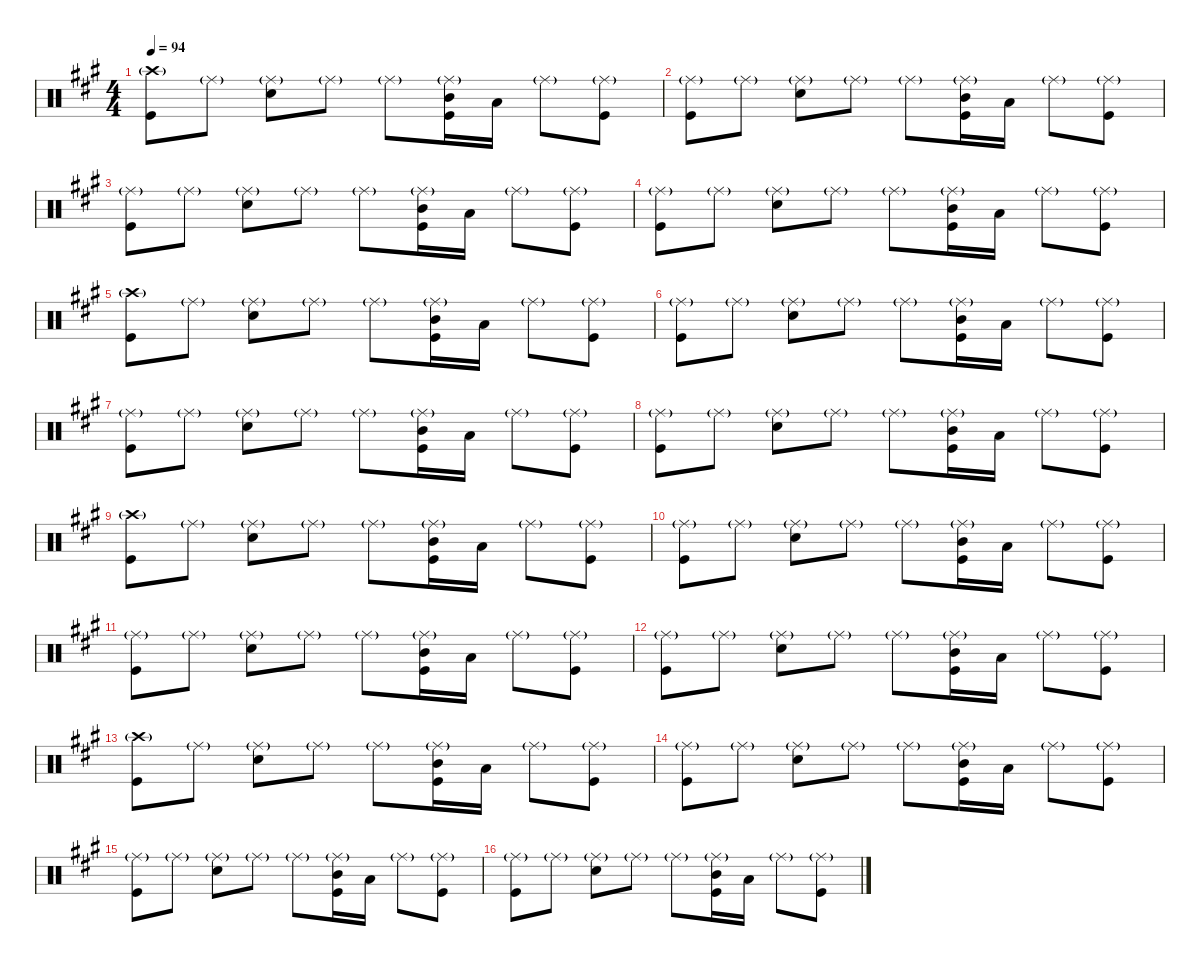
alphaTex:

\defaultSystemsLayout 4
\hideDynamics
\bracketExtendMode nobrackets
\singleTrackTrackNamePolicy hidden
\multiTrackTrackNamePolicy hidden
\firstSystemTrackNameMode fullname
\firstSystemTrackNameOrientation horizontal
\otherSystemsTrackNameOrientation horizontal
\track ("Percussion" "drm.") {defaultSystemsLayout 4 instrument percussion}
\staff {score}
\articulation defaults
\ts (4 4)
\tempo 94
\clef neutral
\ks a
("Crash high (hit)"{g acc forcenatural} "Kick (hit)"{acc forcenatural}).8{dy f beam Down} "Ride (middle)"{g acc forcenatural}.8{dy mf beam Down} ("Ride (middle)"{g acc forcenatural} "Snare (hit) 2"{acc forcenatural}).8{dy f beam Down} "Ride (middle)"{g acc forcenatural}.8{dy mf beam Down} "Ride (middle)"{g acc forcenatural}.8{beam Down} ("Ride (middle)"{g acc forcenatural} "Mid Tom (hit)"{acc forcenatural} "Kick (hit)"{acc forcenatural}).16{dy mp beam Down} "Low Tom (hit)"{acc forcenatural}.16{beam Down} "Ride (middle)"{g acc forcenatural}.8{dy mf beam Down} ("Ride (middle)"{g acc forcenatural} "Kick (hit)"{acc forcenatural}).8{dy f beam Down} |
("Ride (middle)"{g acc forcenatural} "Kick (hit)"{acc forcenatural}).8{beam Down} "Ride (middle)"{g acc forcenatural}.8{dy mf beam Down} ("Ride (middle)"{g acc forcenatural} "Snare (hit) 2"{acc forcenatural}).8{dy f beam Down} "Ride (middle)"{g acc forcenatural}.8{dy mf beam Down} "Ride (middle)"{g acc forcenatural}.8{beam Down} ("Ride (middle)"{g acc forcenatural} "Mid Tom (hit)"{acc forcenatural} "Kick (hit)"{acc forcenatural}).16{dy mp beam Down} "Low Tom (hit)"{acc forcenatural}.16{beam Down} "Ride (middle)"{g acc forcenatural}.8{dy mf beam Down} ("Ride (middle)"{g acc forcenatural} "Kick (hit)"{acc forcenatural}).8{dy f beam Down} |
("Ride (middle)"{g acc forcenatural} "Kick (hit)"{acc forcenatural}).8{beam Down} "Ride (middle)"{g acc forcenatural}.8{dy mf beam Down} ("Ride (middle)"{g acc forcenatural} "Snare (hit) 2"{acc forcenatural}).8{dy f beam Down} "Ride (middle)"{g acc forcenatural}.8{dy mf beam Down} "Ride (middle)"{g acc forcenatural}.8{beam Down} ("Ride (middle)"{g acc forcenatural} "Mid Tom (hit)"{acc forcenatural} "Kick (hit)"{acc forcenatural}).16{dy mp beam Down} "Low Tom (hit)"{acc forcenatural}.16{beam Down} "Ride (middle)"{g acc forcenatural}.8{dy mf beam Down} ("Ride (middle)"{g acc forcenatural} "Kick (hit)"{acc forcenatural}).8{dy f beam Down} |
("Ride (middle)"{g acc forcenatural} "Kick (hit)"{acc forcenatural}).8{beam Down} "Ride (middle)"{g acc forcenatural}.8{dy mf beam Down} ("Ride (middle)"{g acc forcenatural} "Snare (hit) 2"{acc forcenatural}).8{dy f beam Down} "Ride (middle)"{g acc forcenatural}.8{dy mf beam Down} "Ride (middle)"{g acc forcenatural}.8{beam Down} ("Ride (middle)"{g acc forcenatural} "Mid Tom (hit)"{acc forcenatural} "Kick (hit)"{acc forcenatural}).16{dy mp beam Down} "Low Tom (hit)"{acc forcenatural}.16{beam Down} "Ride (middle)"{g acc forcenatural}.8{dy mf beam Down} ("Ride (middle)"{g acc forcenatural} "Kick (hit)"{acc forcenatural}).8{dy f beam Down} |
("Crash high (hit)"{g acc forcenatural} "Kick (hit)"{acc forcenatural}).8{beam Down} "Ride (middle)"{g acc forcenatural}.8{dy mf beam Down} ("Ride (middle)"{g acc forcenatural} "Snare (hit) 2"{acc forcenatural}).8{dy f beam Down} "Ride (middle)"{g acc forcenatural}.8{dy mf beam Down} "Ride (middle)"{g acc forcenatural}.8{beam Down} ("Ride (middle)"{g acc forcenatural} "Mid Tom (hit)"{acc forcenatural} "Kick (hit)"{acc forcenatural}).16{dy mp beam Down} "Low Tom (hit)"{acc forcenatural}.16{beam Down} "Ride (middle)"{g acc forcenatural}.8{dy mf beam Down} ("Ride (middle)"{g acc forcenatural} "Kick (hit)"{acc forcenatural}).8{dy f beam Down} |
("Ride (middle)"{g acc forcenatural} "Kick (hit)"{acc forcenatural}).8{beam Down} "Ride (middle)"{g acc forcenatural}.8{dy mf beam Down} ("Ride (middle)"{g acc forcenatural} "Snare (hit) 2"{acc forcenatural}).8{dy f beam Down} "Ride (middle)"{g acc forcenatural}.8{dy mf beam Down} "Ride (middle)"{g acc forcenatural}.8{beam Down} ("Ride (middle)"{g acc forcenatural} "Mid Tom (hit)"{acc forcenatural} "Kick (hit)"{acc forcenatural}).16{dy mp beam Down} "Low Tom (hit)"{acc forcenatural}.16{beam Down} "Ride (middle)"{g acc forcenatural}.8{dy mf beam Down} ("Ride (middle)"{g acc forcenatural} "Kick (hit)"{acc forcenatural}).8{dy f beam Down} |
("Ride (middle)"{g acc forcenatural} "Kick (hit)"{acc forcenatural}).8{beam Down} "Ride (middle)"{g acc forcenatural}.8{dy mf beam Down} ("Ride (middle)"{g acc forcenatural} "Snare (hit) 2"{acc forcenatural}).8{dy f beam Down} "Ride (middle)"{g acc forcenatural}.8{dy mf beam Down} "Ride (middle)"{g acc forcenatural}.8{beam Down} ("Ride (middle)"{g acc forcenatural} "Mid Tom (hit)"{acc forcenatural} "Kick (hit)"{acc forcenatural}).16{dy mp beam Down} "Low Tom (hit)"{acc forcenatural}.16{beam Down} "Ride (middle)"{g acc forcenatural}.8{dy mf beam Down} ("Ride (middle)"{g acc forcenatural} "Kick (hit)"{acc forcenatural}).8{dy f beam Down} |
("Ride (middle)"{g acc forcenatural} "Kick (hit)"{acc forcenatural}).8{beam Down} "Ride (middle)"{g acc forcenatural}.8{dy mf beam Down} ("Ride (middle)"{g acc forcenatural} "Snare (hit) 2"{acc forcenatural}).8{dy f beam Down} "Ride (middle)"{g acc forcenatural}.8{dy mf beam Down} "Ride (middle)"{g acc forcenatural}.8{beam Down} ("Ride (middle)"{g acc forcenatural} "Mid Tom (hit)"{acc forcenatural} "Kick (hit)"{acc forcenatural}).16{dy mp beam Down} "Low Tom (hit)"{acc forcenatural}.16{beam Down} "Ride (middle)"{g acc forcenatural}.8{dy mf beam Down} ("Ride (middle)"{g acc forcenatural} "Kick (hit)"{acc forcenatural}).8{dy f beam Down} |
("Crash high (hit)"{g acc forcenatural} "Kick (hit)"{acc forcenatural}).8{beam Down} "Ride (middle)"{g acc forcenatural}.8{dy mf beam Down} ("Ride (middle)"{g acc forcenatural} "Snare (hit) 2"{acc forcenatural}).8{dy f beam Down} "Ride (middle)"{g acc forcenatural}.8{dy mf beam Down} "Ride (middle)"{g acc forcenatural}.8{beam Down} ("Ride (middle)"{g acc forcenatural} "Mid Tom (hit)"{acc forcenatural} "Kick (hit)"{acc forcenatural}).16{dy mp beam Down} "Low Tom (hit)"{acc forcenatural}.16{beam Down} "Ride (middle)"{g acc forcenatural}.8{dy mf beam Down} ("Ride (middle)"{g acc forcenatural} "Kick (hit)"{acc forcenatural}).8{dy f beam Down} |
("Ride (middle)"{g acc forcenatural} "Kick (hit)"{acc forcenatural}).8{beam Down} "Ride (middle)"{g acc forcenatural}.8{dy mf beam Down} ("Ride (middle)"{g acc forcenatural} "Snare (hit) 2"{acc forcenatural}).8{dy f beam Down} "Ride (middle)"{g acc forcenatural}.8{dy mf beam Down} "Ride (middle)"{g acc forcenatural}.8{beam Down} ("Ride (middle)"{g acc forcenatural} "Mid Tom (hit)"{acc forcenatural} "Kick (hit)"{acc forcenatural}).16{dy mp beam Down} "Low Tom (hit)"{acc forcenatural}.16{beam Down} "Ride (middle)"{g acc forcenatural}.8{dy mf beam Down} ("Ride (middle)"{g acc forcenatural} "Kick (hit)"{acc forcenatural}).8{dy f beam Down} |
("Ride (middle)"{g acc forcenatural} "Kick (hit)"{acc forcenatural}).8{beam Down} "Ride (middle)"{g acc forcenatural}.8{dy mf beam Down} ("Ride (middle)"{g acc forcenatural} "Snare (hit) 2"{acc forcenatural}).8{dy f beam Down} "Ride (middle)"{g acc forcenatural}.8{dy mf beam Down} "Ride (middle)"{g acc forcenatural}.8{beam Down} ("Ride (middle)"{g acc forcenatural} "Mid Tom (hit)"{acc forcenatural} "Kick (hit)"{acc forcenatural}).16{dy mp beam Down} "Low Tom (hit)"{acc forcenatural}.16{beam Down} "Ride (middle)"{g acc forcenatural}.8{dy mf beam Down} ("Ride (middle)"{g acc forcenatural} "Kick (hit)"{acc forcenatural}).8{dy f beam Down} |
("Ride (middle)"{g acc forcenatural} "Kick (hit)"{acc forcenatural}).8{beam Down} "Ride (middle)"{g acc forcenatural}.8{dy mf beam Down} ("Ride (middle)"{g acc forcenatural} "Snare (hit) 2"{acc forcenatural}).8{dy f beam Down} "Ride (middle)"{g acc forcenatural}.8{dy mf beam Down} "Ride (middle)"{g acc forcenatural}.8{beam Down} ("Ride (middle)"{g acc forcenatural} "Mid Tom (hit)"{acc forcenatural} "Kick (hit)"{acc forcenatural}).16{dy mp beam Down} "Low Tom (hit)"{acc forcenatural}.16{beam Down} "Ride (middle)"{g acc forcenatural}.8{dy mf beam Down} ("Ride (middle)"{g acc forcenatural} "Kick (hit)"{acc forcenatural}).8{dy f beam Down} |
("Crash high (hit)"{g acc forcenatural} "Kick (hit)"{acc forcenatural}).8{beam Down} "Ride (middle)"{g acc forcenatural}.8{dy mf beam Down} ("Ride (middle)"{g acc forcenatural} "Snare (hit) 2"{acc forcenatural}).8{dy f beam Down} "Ride (middle)"{g acc forcenatural}.8{dy mf beam Down} "Ride (middle)"{g acc forcenatural}.8{beam Down} ("Ride (middle)"{g acc forcenatural} "Mid Tom (hit)"{acc forcenatural} "Kick (hit)"{acc forcenatural}).16{dy mp beam Down} "Low Tom (hit)"{acc forcenatural}.16{beam Down} "Ride (middle)"{g acc forcenatural}.8{dy mf beam Down} ("Ride (middle)"{g acc forcenatural} "Kick (hit)"{acc forcenatural}).8{dy f beam Down} |
("Ride (middle)"{g acc forcenatural} "Kick (hit)"{acc forcenatural}).8{beam Down} "Ride (middle)"{g acc forcenatural}.8{dy mf beam Down} ("Ride (middle)"{g acc forcenatural} "Snare (hit) 2"{acc forcenatural}).8{dy f beam Down} "Ride (middle)"{g acc forcenatural}.8{dy mf beam Down} "Ride (middle)"{g acc forcenatural}.8{beam Down} ("Ride (middle)"{g acc forcenatural} "Mid Tom (hit)"{acc forcenatural} "Kick (hit)"{acc forcenatural}).16{dy mp beam Down} "Low Tom (hit)"{acc forcenatural}.16{beam Down} "Ride (middle)"{g acc forcenatural}.8{dy mf beam Down} ("Ride (middle)"{g acc forcenatural} "Kick (hit)"{acc forcenatural}).8{dy f beam Down} |
("Ride (middle)"{g acc forcenatural} "Kick (hit)"{acc forcenatural}).8{beam Down} "Ride (middle)"{g acc forcenatural}.8{dy mf beam Down} ("Ride (middle)"{g acc forcenatural} "Snare (hit) 2"{acc forcenatural}).8{dy f beam Down} "Ride (middle)"{g acc forcenatural}.8{dy mf beam Down} "Ride (middle)"{g acc forcenatural}.8{beam Down} ("Ride (middle)"{g acc forcenatural} "Mid Tom (hit)"{acc forcenatural} "Kick (hit)"{acc forcenatural}).16{dy mp beam Down} "Low Tom (hit)"{acc forcenatural}.16{beam Down} "Ride (middle)"{g acc forcenatural}.8{dy mf beam Down} ("Ride (middle)"{g acc forcenatural} "Kick (hit)"{acc forcenatural}).8{dy f beam Down} |
("Ride (middle)"{g acc forcenatural} "Kick (hit)"{acc forcenatural}).8{beam Down} "Ride (middle)"{g acc forcenatural}.8{dy mf beam Down} ("Ride (middle)"{g acc forcenatural} "Snare (hit) 2"{acc forcenatural}).8{dy f beam Down} "Ride (middle)"{g acc forcenatural}.8{dy mf beam Down} "Ride (middle)"{g acc forcenatural}.8{beam Down} ("Ride (middle)"{g acc forcenatural} "Mid Tom (hit)"{acc forcenatural} "Kick (hit)"{acc forcenatural}).16{dy mp beam Down} "Low Tom (hit)"{acc forcenatural}.16{beam Down} "Ride (middle)"{g acc forcenatural}.8{dy mf beam Down} ("Ride (middle)"{g acc forcenatural} "Kick (hit)"{acc forcenatural}).8{dy f beam Down}
